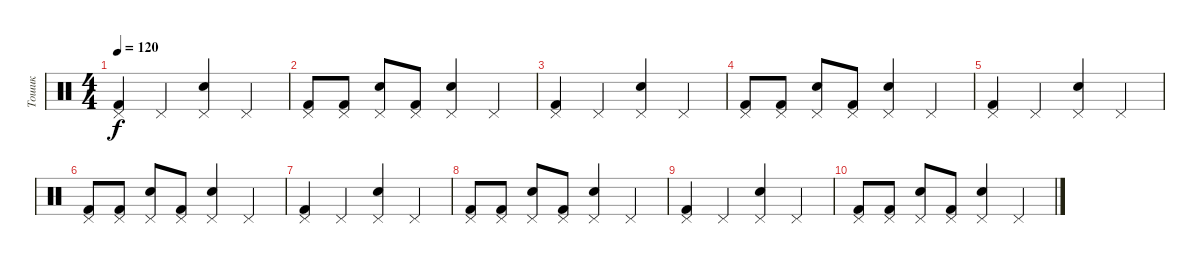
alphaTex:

\track ("Тошик" "Тошик") {instrument percussion}
\staff {score}
\articulation defaults
\ts (4 4)
\tempo 120
\clef neutral
\ks c
("Kick (hit) 2" "Pedal Hi-Hat (hit)").4{dy f} "Pedal Hi-Hat (hit)".4 ("Electric Snare (hit)" "Pedal Hi-Hat (hit)").4 "Pedal Hi-Hat (hit)".4 |
("Kick (hit) 2" "Pedal Hi-Hat (hit)").8 ("Kick (hit) 2" "Pedal Hi-Hat (hit)").8 ("Snare (hit) 2" "Pedal Hi-Hat (hit)").8 ("Kick (hit) 2" "Pedal Hi-Hat (hit)").8 ("Electric Snare (hit)" "Pedal Hi-Hat (hit)").4 "Pedal Hi-Hat (hit)".4 |
("Kick (hit) 2" "Pedal Hi-Hat (hit)").4 "Pedal Hi-Hat (hit)".4 ("Electric Snare (hit)" "Pedal Hi-Hat (hit)").4 "Pedal Hi-Hat (hit)".4 |
("Kick (hit) 2" "Pedal Hi-Hat (hit)").8 ("Kick (hit) 2" "Pedal Hi-Hat (hit)").8 ("Snare (hit) 2" "Pedal Hi-Hat (hit)").8 ("Kick (hit) 2" "Pedal Hi-Hat (hit)").8 ("Electric Snare (hit)" "Pedal Hi-Hat (hit)").4 "Pedal Hi-Hat (hit)".4 |
("Kick (hit) 2" "Pedal Hi-Hat (hit)").4 "Pedal Hi-Hat (hit)".4 ("Electric Snare (hit)" "Pedal Hi-Hat (hit)").4 "Pedal Hi-Hat (hit)".4 |
("Kick (hit) 2" "Pedal Hi-Hat (hit)").8 ("Kick (hit) 2" "Pedal Hi-Hat (hit)").8 ("Snare (hit) 2" "Pedal Hi-Hat (hit)").8 ("Kick (hit) 2" "Pedal Hi-Hat (hit)").8 ("Electric Snare (hit)" "Pedal Hi-Hat (hit)").4 "Pedal Hi-Hat (hit)".4 |
("Kick (hit) 2" "Pedal Hi-Hat (hit)").4 "Pedal Hi-Hat (hit)".4 ("Electric Snare (hit)" "Pedal Hi-Hat (hit)").4 "Pedal Hi-Hat (hit)".4 |
("Kick (hit) 2" "Pedal Hi-Hat (hit)").8 ("Kick (hit) 2" "Pedal Hi-Hat (hit)").8 ("Snare (hit) 2" "Pedal Hi-Hat (hit)").8 ("Kick (hit) 2" "Pedal Hi-Hat (hit)").8 ("Electric Snare (hit)" "Pedal Hi-Hat (hit)").4 "Pedal Hi-Hat (hit)".4 |
("Kick (hit) 2" "Pedal Hi-Hat (hit)").4 "Pedal Hi-Hat (hit)".4 ("Electric Snare (hit)" "Pedal Hi-Hat (hit)").4 "Pedal Hi-Hat (hit)".4 |
("Kick (hit) 2" "Pedal Hi-Hat (hit)").8 ("Kick (hit) 2" "Pedal Hi-Hat (hit)").8 ("Snare (hit) 2" "Pedal Hi-Hat (hit)").8 ("Kick (hit) 2" "Pedal Hi-Hat (hit)").8 ("Electric Snare (hit)" "Pedal Hi-Hat (hit)").4 "Pedal Hi-Hat (hit)".4
